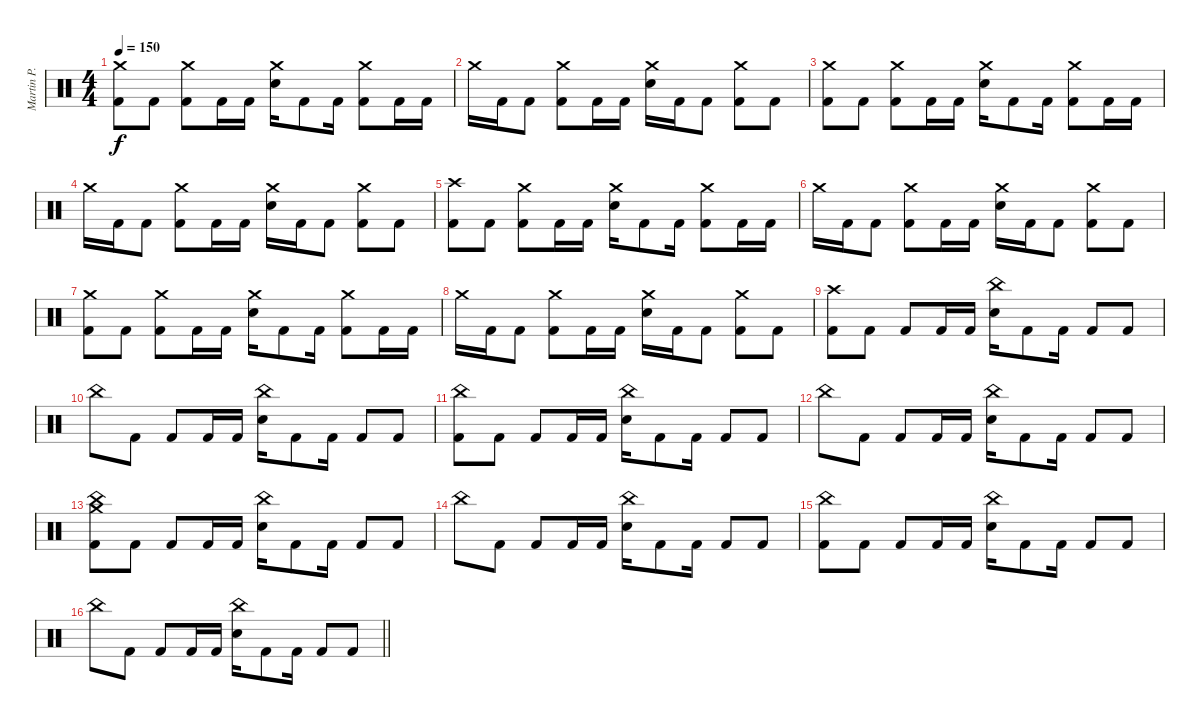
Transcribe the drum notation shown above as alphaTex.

\track ("Martin P." "Martin P.") {instrument percussion}
\staff {score}
\articulation defaults
\ts (4 4)
\tempo 150
\clef neutral
\ks c
("Crash medium (hit)" "Kick (hit) 2").8{dy f} "Kick (hit) 2".8 ("Crash medium (hit)" "Kick (hit) 2").8 "Kick (hit) 2".16 "Kick (hit) 2".16 ("Crash medium (hit)" "Electric Snare (hit)").16 "Kick (hit) 2".8 "Kick (hit) 2".16 ("Crash medium (hit)" "Kick (hit) 2").8 "Kick (hit) 2".16 "Kick (hit) 2".16 |
"Crash medium (hit)".16 "Kick (hit) 2".16 "Kick (hit) 2".8 ("Crash medium (hit)" "Kick (hit) 2").8 "Kick (hit) 2".16 "Kick (hit) 2".16 ("Crash medium (hit)" "Electric Snare (hit)").16 "Kick (hit) 2".16 "Kick (hit) 2".8 ("Crash medium (hit)" "Kick (hit) 2").8 "Kick (hit) 2".8 |
("Crash medium (hit)" "Kick (hit) 2").8 "Kick (hit) 2".8 ("Crash medium (hit)" "Kick (hit) 2").8 "Kick (hit) 2".16 "Kick (hit) 2".16 ("Crash medium (hit)" "Electric Snare (hit)").16 "Kick (hit) 2".8 "Kick (hit) 2".16 ("Crash medium (hit)" "Kick (hit) 2").8 "Kick (hit) 2".16 "Kick (hit) 2".16 |
"Crash medium (hit)".16 "Kick (hit) 2".16 "Kick (hit) 2".8 ("Crash medium (hit)" "Kick (hit) 2").8 "Kick (hit) 2".16 "Kick (hit) 2".16 ("Crash medium (hit)" "Electric Snare (hit)").16 "Kick (hit) 2".16 "Kick (hit) 2".8 ("Crash medium (hit)" "Kick (hit) 2").8 "Kick (hit) 2".8 |
("Crash high (hit)" "Kick (hit) 2").8 "Kick (hit) 2".8 ("Crash medium (hit)" "Kick (hit) 2").8 "Kick (hit) 2".16 "Kick (hit) 2".16 ("Crash medium (hit)" "Electric Snare (hit)").16 "Kick (hit) 2".8 "Kick (hit) 2".16 ("Crash medium (hit)" "Kick (hit) 2").8 "Kick (hit) 2".16 "Kick (hit) 2".16 |
"Crash medium (hit)".16 "Kick (hit) 2".16 "Kick (hit) 2".8 ("Crash medium (hit)" "Kick (hit) 2").8 "Kick (hit) 2".16 "Kick (hit) 2".16 ("Crash medium (hit)" "Electric Snare (hit)").16 "Kick (hit) 2".16 "Kick (hit) 2".8 ("Crash medium (hit)" "Kick (hit) 2").8 "Kick (hit) 2".8 |
("Crash medium (hit)" "Kick (hit) 2").8 "Kick (hit) 2".8 ("Crash medium (hit)" "Kick (hit) 2").8 "Kick (hit) 2".16 "Kick (hit) 2".16 ("Crash medium (hit)" "Electric Snare (hit)").16 "Kick (hit) 2".8 "Kick (hit) 2".16 ("Crash medium (hit)" "Kick (hit) 2").8 "Kick (hit) 2".16 "Kick (hit) 2".16 |
"Crash medium (hit)".16 "Kick (hit) 2".16 "Kick (hit) 2".8 ("Crash medium (hit)" "Kick (hit) 2").8 "Kick (hit) 2".16 "Kick (hit) 2".16 ("Crash medium (hit)" "Electric Snare (hit)").16 "Kick (hit) 2".16 "Kick (hit) 2".8 ("Crash medium (hit)" "Kick (hit) 2").8 "Kick (hit) 2".8 |
("Crash high (hit)" "Kick (hit) 2").8 "Kick (hit) 2".8 "Kick (hit) 2".8 "Kick (hit) 2".16 "Kick (hit) 2".16 ("China (hit)" "Electric Snare (hit)").16 "Kick (hit) 2".8 "Kick (hit) 2".16 "Kick (hit) 2".8 "Kick (hit) 2".8 |
"China (hit)".8 "Kick (hit) 2".8 "Kick (hit) 2".8 "Kick (hit) 2".16 "Kick (hit) 2".16 ("China (hit)" "Electric Snare (hit)").16 "Kick (hit) 2".8 "Kick (hit) 2".16 "Kick (hit) 2".8 "Kick (hit) 2".8 |
("China (hit)" "Kick (hit) 2").8 "Kick (hit) 2".8 "Kick (hit) 2".8 "Kick (hit) 2".16 "Kick (hit) 2".16 ("China (hit)" "Electric Snare (hit)").16 "Kick (hit) 2".8 "Kick (hit) 2".16 "Kick (hit) 2".8 "Kick (hit) 2".8 |
"China (hit)".8 "Kick (hit) 2".8 "Kick (hit) 2".8 "Kick (hit) 2".16 "Kick (hit) 2".16 ("China (hit)" "Electric Snare (hit)").16 "Kick (hit) 2".8 "Kick (hit) 2".16 "Kick (hit) 2".8 "Kick (hit) 2".8 |
("Crash medium (hit)" "China (hit)" "Kick (hit) 2").8 "Kick (hit) 2".8 "Kick (hit) 2".8 "Kick (hit) 2".16 "Kick (hit) 2".16 ("China (hit)" "Electric Snare (hit)").16 "Kick (hit) 2".8 "Kick (hit) 2".16 "Kick (hit) 2".8 "Kick (hit) 2".8 |
"China (hit)".8 "Kick (hit) 2".8 "Kick (hit) 2".8 "Kick (hit) 2".16 "Kick (hit) 2".16 ("China (hit)" "Electric Snare (hit)").16 "Kick (hit) 2".8 "Kick (hit) 2".16 "Kick (hit) 2".8 "Kick (hit) 2".8 |
("China (hit)" "Kick (hit) 2").8 "Kick (hit) 2".8 "Kick (hit) 2".8 "Kick (hit) 2".16 "Kick (hit) 2".16 ("China (hit)" "Electric Snare (hit)").16 "Kick (hit) 2".8 "Kick (hit) 2".16 "Kick (hit) 2".8 "Kick (hit) 2".8 |
\barLineRight lightlight "China (hit)".8 "Kick (hit) 2".8 "Kick (hit) 2".8 "Kick (hit) 2".16 "Kick (hit) 2".16
("China (hit)" "Electric Snare (hit)").16 "Kick (hit) 2".8 "Kick (hit) 2".16 "Kick (hit) 2".8 "Kick (hit) 2".8
